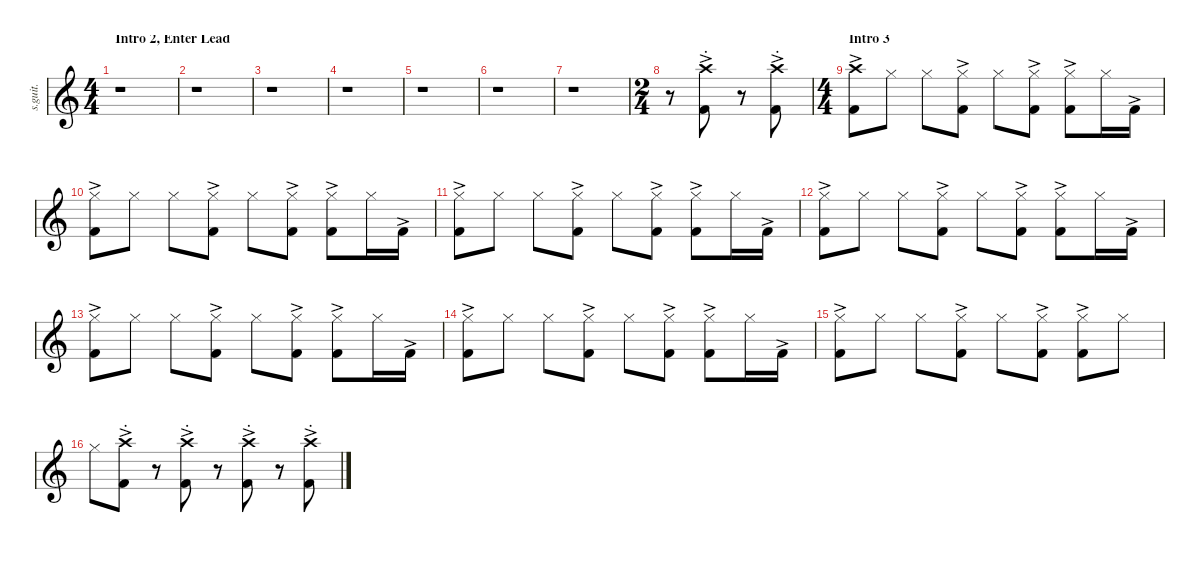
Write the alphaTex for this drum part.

\defaultSystemsLayout 4
\hideDynamics
\bracketExtendMode nobrackets
\track ("Lars Ulrich - Drums" "s.guit.") {instrument percussion}
\staff {score}
\articulation defaults
\ts (4 4)
\beaming (8 2 2 2 2)
\section ("" "Intro 2, Enter Lead")
\tempo (103 hide)
\clef g2
\ks c
r.1{dy f} |
r.1 |
r.1 |
r.1 |
r.1 |
r.1 |
r.1 |
\ts (2 4)
\beaming (8 2 2 2 2)
r.8 ("Kick (hit) 2"{ac} "Crash high (choke)").8{lyrics (0 "") lyrics (1 "") lyrics (2 "") lyrics (3 "") lyrics (4 "")} r.8 ("Kick (hit) 2"{ac} "Crash high (choke)").8{lyrics (0 "") lyrics (1 "") lyrics (2 "") lyrics (3 "") lyrics (4 "")} |
\ts (4 4)
\beaming (8 2 2 2 2)
\section ("" "Intro 3")
("Kick (hit) 2"{ac} "Crash high (hit)").8{lyrics (0 "") lyrics (1 "") lyrics (2 "") lyrics (3 "") lyrics (4 "")} "Hi-Hat (closed)".8{lyrics (0 "") lyrics (1 "") lyrics (2 "") lyrics (3 "") lyrics (4 "")} "Hi-Hat (closed)".8{lyrics (0 "") lyrics (1 "") lyrics (2 "") lyrics (3 "") lyrics (4 "")} ("Hi-Hat (closed)" "Kick (hit) 2"{ac}).8{lyrics (0 "") lyrics (1 "") lyrics (2 "") lyrics (3 "") lyrics (4 "")} "Hi-Hat (closed)".8{lyrics (0 "") lyrics (1 "") lyrics (2 "") lyrics (3 "") lyrics (4 "")} ("Hi-Hat (closed)" "Kick (hit) 2"{ac}).8{lyrics (0 "") lyrics (1 "") lyrics (2 "") lyrics (3 "") lyrics (4 "")} ("Hi-Hat (closed)" "Kick (hit) 2"{ac}).8{lyrics (0 "") lyrics (1 "") lyrics (2 "") lyrics (3 "") lyrics (4 "")} "Hi-Hat (closed)".16{lyrics (0 "") lyrics (1 "") lyrics (2 "") lyrics (3 "") lyrics (4 "")} "Kick (hit) 2"{ac}.16{lyrics (0 "") lyrics (1 "") lyrics (2 "") lyrics (3 "") lyrics (4 "") dy mp} |
("Hi-Hat (closed)" "Kick (hit) 2"{ac}).8{lyrics (0 "") lyrics (1 "") lyrics (2 "") lyrics (3 "") lyrics (4 "") dy f} "Hi-Hat (closed)".8{lyrics (0 "") lyrics (1 "") lyrics (2 "") lyrics (3 "") lyrics (4 "")} "Hi-Hat (closed)".8{lyrics (0 "") lyrics (1 "") lyrics (2 "") lyrics (3 "") lyrics (4 "")} ("Hi-Hat (closed)" "Kick (hit) 2"{ac}).8{lyrics (0 "") lyrics (1 "") lyrics (2 "") lyrics (3 "") lyrics (4 "")} "Hi-Hat (closed)".8{lyrics (0 "") lyrics (1 "") lyrics (2 "") lyrics (3 "") lyrics (4 "")} ("Hi-Hat (closed)" "Kick (hit) 2"{ac}).8{lyrics (0 "") lyrics (1 "") lyrics (2 "") lyrics (3 "") lyrics (4 "")} ("Hi-Hat (closed)" "Kick (hit) 2"{ac}).8{lyrics (0 "") lyrics (1 "") lyrics (2 "") lyrics (3 "") lyrics (4 "")} "Hi-Hat (closed)".16{lyrics (0 "") lyrics (1 "") lyrics (2 "") lyrics (3 "") lyrics (4 "")} "Kick (hit) 2"{ac}.16{lyrics (0 "") lyrics (1 "") lyrics (2 "") lyrics (3 "") lyrics (4 "") dy mp} |
("Hi-Hat (closed)" "Kick (hit) 2"{ac}).8{lyrics (0 "") lyrics (1 "") lyrics (2 "") lyrics (3 "") lyrics (4 "") dy f} "Hi-Hat (closed)".8{lyrics (0 "") lyrics (1 "") lyrics (2 "") lyrics (3 "") lyrics (4 "")} "Hi-Hat (closed)".8{lyrics (0 "") lyrics (1 "") lyrics (2 "") lyrics (3 "") lyrics (4 "")} ("Hi-Hat (closed)" "Kick (hit) 2"{ac}).8{lyrics (0 "") lyrics (1 "") lyrics (2 "") lyrics (3 "") lyrics (4 "")} "Hi-Hat (closed)".8{lyrics (0 "") lyrics (1 "") lyrics (2 "") lyrics (3 "") lyrics (4 "")} ("Hi-Hat (closed)" "Kick (hit) 2"{ac}).8{lyrics (0 "") lyrics (1 "") lyrics (2 "") lyrics (3 "") lyrics (4 "")} ("Hi-Hat (closed)" "Kick (hit) 2"{ac}).8{lyrics (0 "") lyrics (1 "") lyrics (2 "") lyrics (3 "") lyrics (4 "")} "Hi-Hat (closed)".16{lyrics (0 "") lyrics (1 "") lyrics (2 "") lyrics (3 "") lyrics (4 "")} "Kick (hit) 2"{ac}.16{lyrics (0 "") lyrics (1 "") lyrics (2 "") lyrics (3 "") lyrics (4 "") dy mp} |
("Hi-Hat (closed)" "Kick (hit) 2"{ac}).8{lyrics (0 "") lyrics (1 "") lyrics (2 "") lyrics (3 "") lyrics (4 "") dy f} "Hi-Hat (closed)".8{lyrics (0 "") lyrics (1 "") lyrics (2 "") lyrics (3 "") lyrics (4 "")} "Hi-Hat (closed)".8{lyrics (0 "") lyrics (1 "") lyrics (2 "") lyrics (3 "") lyrics (4 "")} ("Hi-Hat (closed)" "Kick (hit) 2"{ac}).8{lyrics (0 "") lyrics (1 "") lyrics (2 "") lyrics (3 "") lyrics (4 "")} "Hi-Hat (closed)".8{lyrics (0 "") lyrics (1 "") lyrics (2 "") lyrics (3 "") lyrics (4 "")} ("Hi-Hat (closed)" "Kick (hit) 2"{ac}).8{lyrics (0 "") lyrics (1 "") lyrics (2 "") lyrics (3 "") lyrics (4 "")} ("Hi-Hat (closed)" "Kick (hit) 2"{ac}).8{lyrics (0 "") lyrics (1 "") lyrics (2 "") lyrics (3 "") lyrics (4 "")} "Hi-Hat (closed)".16{lyrics (0 "") lyrics (1 "") lyrics (2 "") lyrics (3 "") lyrics (4 "")} "Kick (hit) 2"{ac}.16{lyrics (0 "") lyrics (1 "") lyrics (2 "") lyrics (3 "") lyrics (4 "") dy mp} |
("Hi-Hat (closed)" "Kick (hit) 2"{ac}).8{lyrics (0 "") lyrics (1 "") lyrics (2 "") lyrics (3 "") lyrics (4 "") dy f} "Hi-Hat (closed)".8{lyrics (0 "") lyrics (1 "") lyrics (2 "") lyrics (3 "") lyrics (4 "")} "Hi-Hat (closed)".8{lyrics (0 "") lyrics (1 "") lyrics (2 "") lyrics (3 "") lyrics (4 "")} ("Hi-Hat (closed)" "Kick (hit) 2"{ac}).8{lyrics (0 "") lyrics (1 "") lyrics (2 "") lyrics (3 "") lyrics (4 "")} "Hi-Hat (closed)".8{lyrics (0 "") lyrics (1 "") lyrics (2 "") lyrics (3 "") lyrics (4 "")} ("Hi-Hat (closed)" "Kick (hit) 2"{ac}).8{lyrics (0 "") lyrics (1 "") lyrics (2 "") lyrics (3 "") lyrics (4 "")} ("Hi-Hat (closed)" "Kick (hit) 2"{ac}).8{lyrics (0 "") lyrics (1 "") lyrics (2 "") lyrics (3 "") lyrics (4 "")} "Hi-Hat (closed)".16{lyrics (0 "") lyrics (1 "") lyrics (2 "") lyrics (3 "") lyrics (4 "")} "Kick (hit) 2"{ac}.16{lyrics (0 "") lyrics (1 "") lyrics (2 "") lyrics (3 "") lyrics (4 "") dy mp} |
("Hi-Hat (closed)" "Kick (hit) 2"{ac}).8{lyrics (0 "") lyrics (1 "") lyrics (2 "") lyrics (3 "") lyrics (4 "") dy f} "Hi-Hat (closed)".8{lyrics (0 "") lyrics (1 "") lyrics (2 "") lyrics (3 "") lyrics (4 "")} "Hi-Hat (closed)".8{lyrics (0 "") lyrics (1 "") lyrics (2 "") lyrics (3 "") lyrics (4 "")} ("Hi-Hat (closed)" "Kick (hit) 2"{ac}).8{lyrics (0 "") lyrics (1 "") lyrics (2 "") lyrics (3 "") lyrics (4 "")} "Hi-Hat (closed)".8{lyrics (0 "") lyrics (1 "") lyrics (2 "") lyrics (3 "") lyrics (4 "")} ("Hi-Hat (closed)" "Kick (hit) 2"{ac}).8{lyrics (0 "") lyrics (1 "") lyrics (2 "") lyrics (3 "") lyrics (4 "")} ("Hi-Hat (closed)" "Kick (hit) 2"{ac}).8{lyrics (0 "") lyrics (1 "") lyrics (2 "") lyrics (3 "") lyrics (4 "")} "Hi-Hat (closed)".16{lyrics (0 "") lyrics (1 "") lyrics (2 "") lyrics (3 "") lyrics (4 "")} "Kick (hit) 2"{ac}.16{lyrics (0 "") lyrics (1 "") lyrics (2 "") lyrics (3 "") lyrics (4 "") dy mp} |
("Hi-Hat (closed)" "Kick (hit) 2"{ac}).8{lyrics (0 "") lyrics (1 "") lyrics (2 "") lyrics (3 "") lyrics (4 "") dy f} "Hi-Hat (closed)".8{lyrics (0 "") lyrics (1 "") lyrics (2 "") lyrics (3 "") lyrics (4 "")} "Hi-Hat (closed)".8{lyrics (0 "") lyrics (1 "") lyrics (2 "") lyrics (3 "") lyrics (4 "")} ("Hi-Hat (closed)" "Kick (hit) 2"{ac}).8{lyrics (0 "") lyrics (1 "") lyrics (2 "") lyrics (3 "") lyrics (4 "")} "Hi-Hat (closed)".8{lyrics (0 "") lyrics (1 "") lyrics (2 "") lyrics (3 "") lyrics (4 "")} ("Hi-Hat (closed)" "Kick (hit) 2"{ac}).8{lyrics (0 "") lyrics (1 "") lyrics (2 "") lyrics (3 "") lyrics (4 "")} ("Hi-Hat (closed)" "Kick (hit) 2"{ac}).8{lyrics (0 "") lyrics (1 "") lyrics (2 "") lyrics (3 "") lyrics (4 "")} "Hi-Hat (closed)".8{lyrics (0 "") lyrics (1 "") lyrics (2 "") lyrics (3 "") lyrics (4 "")} |
"Hi-Hat (closed)".8{lyrics (0 "") lyrics (1 "") lyrics (2 "") lyrics (3 "") lyrics (4 "")} ("Kick (hit) 2"{ac} "Crash high (choke)").8{lyrics (0 "") lyrics (1 "") lyrics (2 "") lyrics (3 "") lyrics (4 "")} r.8 ("Kick (hit) 2"{ac} "Crash high (choke)").8{lyrics (0 "") lyrics (1 "") lyrics (2 "") lyrics (3 "") lyrics (4 "")} r.8 ("Kick (hit) 2"{ac} "Crash high (choke)").8{lyrics (0 "") lyrics (1 "") lyrics (2 "") lyrics (3 "") lyrics (4 "")} r.8 ("Kick (hit) 2"{ac} "Crash high (choke)").8{lyrics (0 "") lyrics (1 "") lyrics (2 "") lyrics (3 "") lyrics (4 "")}
